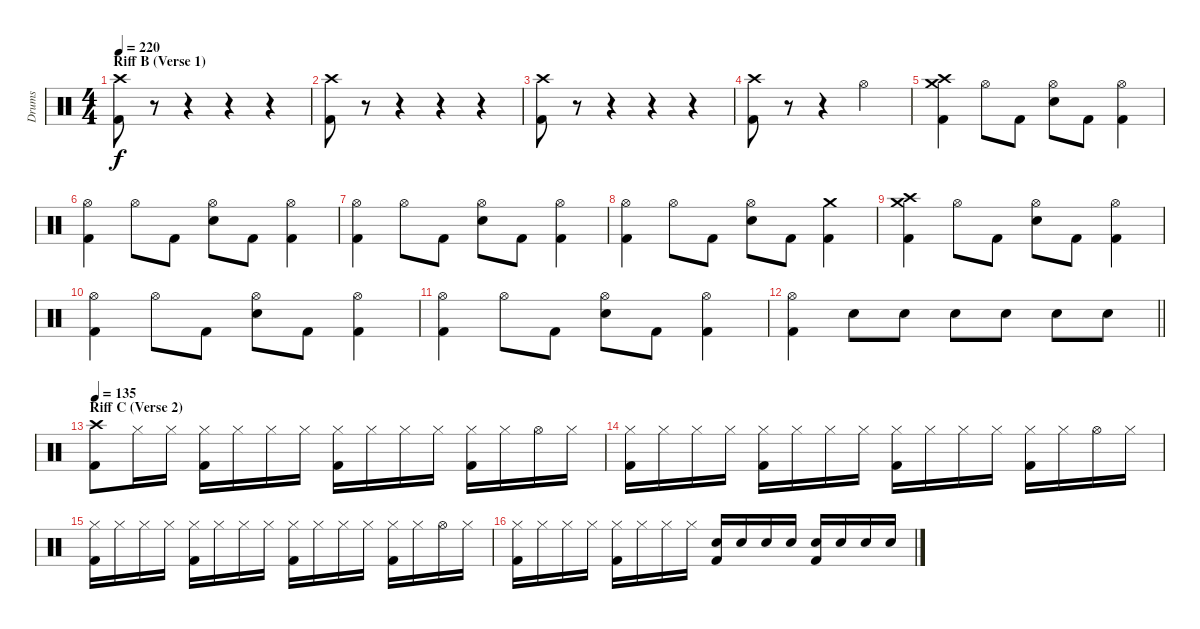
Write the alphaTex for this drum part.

\track ("Drums" "Drums") {instrument percussion}
\staff {score}
\articulation defaults
\ts (4 4)
\section ("" "Riff B (Verse 1)")
\tempo 220
\clef neutral
\ks c
("Crash high (hit)" "Kick (hit) 2").8{dy f} r.8 r.4 r.4 r.4 |
("Crash high (hit)" "Kick (hit) 2").8 r.8 r.4 r.4 r.4 |
("Crash high (hit)" "Kick (hit) 2").8 r.8 r.4 r.4 r.4 |
("Crash high (hit)" "Kick (hit) 2").8 r.8 r.4 "Hi-Hat (open)".2 |
("Crash high (hit)" "Crash medium (hit)" "Kick (hit) 2").4 "Hi-Hat (open)".8 "Kick (hit) 2".8 ("Hi-Hat (open)" "Snare (hit) 2").8 "Kick (hit) 2".8 ("Hi-Hat (open)" "Kick (hit) 2").4 |
("Hi-Hat (open)" "Kick (hit) 2").4 "Hi-Hat (open)".8 "Kick (hit) 2".8 ("Hi-Hat (open)" "Snare (hit) 2").8 "Kick (hit) 2".8 ("Hi-Hat (open)" "Kick (hit) 2").4 |
("Hi-Hat (open)" "Kick (hit) 2").4 "Hi-Hat (open)".8 "Kick (hit) 2".8 ("Hi-Hat (open)" "Snare (hit) 2").8 "Kick (hit) 2".8 ("Hi-Hat (open)" "Kick (hit) 2").4 |
("Hi-Hat (open)" "Kick (hit) 2").4 "Hi-Hat (open)".8 "Kick (hit) 2".8 ("Hi-Hat (open)" "Snare (hit) 2").8 "Kick (hit) 2".8 ("Crash medium (hit)" "Kick (hit) 2").4 |
("Crash high (hit)" "Crash medium (hit)" "Kick (hit) 2").4 "Hi-Hat (open)".8 "Kick (hit) 2".8 ("Hi-Hat (open)" "Snare (hit) 2").8 "Kick (hit) 2".8 ("Hi-Hat (open)" "Kick (hit) 2").4 |
("Hi-Hat (open)" "Kick (hit) 2").4 "Hi-Hat (open)".8 "Kick (hit) 2".8 ("Hi-Hat (open)" "Snare (hit) 2").8 "Kick (hit) 2".8 ("Hi-Hat (open)" "Kick (hit) 2").4 |
("Hi-Hat (open)" "Kick (hit) 2").4 "Hi-Hat (open)".8 "Kick (hit) 2".8 ("Hi-Hat (open)" "Snare (hit) 2").8 "Kick (hit) 2".8 ("Hi-Hat (open)" "Kick (hit) 2").4 |
\barLineRight lightlight
("Hi-Hat (open)" "Kick (hit) 2").4 "Snare (hit) 2".8 "Snare (hit) 2".8 "Snare (hit) 2".8 "Snare (hit) 2".8 "Snare (hit) 2".8 "Snare (hit) 2".8 |
\section ("" "Riff C (Verse 2)")
\tempo 135
("Crash high (hit)" "Kick (hit) 2").8 "Hi-Hat (closed)".16 "Hi-Hat (closed)".16 ("Hi-Hat (closed)" "Kick (hit) 2").16 "Hi-Hat (closed)".16 "Hi-Hat (closed)".16 "Hi-Hat (closed)".16 ("Hi-Hat (closed)" "Kick (hit) 2").16 "Hi-Hat (closed)".16 "Hi-Hat (closed)".16 "Hi-Hat (closed)".16 ("Hi-Hat (closed)" "Kick (hit) 2").16 "Hi-Hat (closed)".16 "Hi-Hat (open)".16 "Hi-Hat (closed)".16 |
("Hi-Hat (closed)" "Kick (hit) 2").16 "Hi-Hat (closed)".16 "Hi-Hat (closed)".16 "Hi-Hat (closed)".16 ("Hi-Hat (closed)" "Kick (hit) 2").16 "Hi-Hat (closed)".16 "Hi-Hat (closed)".16 "Hi-Hat (closed)".16 ("Hi-Hat (closed)" "Kick (hit) 2").16 "Hi-Hat (closed)".16 "Hi-Hat (closed)".16 "Hi-Hat (closed)".16 ("Hi-Hat (closed)" "Kick (hit) 2").16 "Hi-Hat (closed)".16 "Hi-Hat (open)".16 "Hi-Hat (closed)".16 |
("Hi-Hat (closed)" "Kick (hit) 2").16 "Hi-Hat (closed)".16 "Hi-Hat (closed)".16 "Hi-Hat (closed)".16 ("Hi-Hat (closed)" "Kick (hit) 2").16 "Hi-Hat (closed)".16 "Hi-Hat (closed)".16 "Hi-Hat (closed)".16 ("Hi-Hat (closed)" "Kick (hit) 2").16 "Hi-Hat (closed)".16 "Hi-Hat (closed)".16 "Hi-Hat (closed)".16 ("Hi-Hat (closed)" "Kick (hit) 2").16 "Hi-Hat (closed)".16 "Hi-Hat (open)".16 "Hi-Hat (closed)".16 |
("Hi-Hat (closed)" "Kick (hit) 2").16 "Hi-Hat (closed)".16 "Hi-Hat (closed)".16 "Hi-Hat (closed)".16 ("Hi-Hat (closed)" "Kick (hit) 2").16 "Hi-Hat (closed)".16 "Hi-Hat (closed)".16 "Hi-Hat (closed)".16 ("Snare (hit) 2" "Kick (hit) 2").16 "Snare (hit) 2".16 "Snare (hit) 2".16 "Snare (hit) 2".16 ("Snare (hit) 2" "Kick (hit) 2").16 "Snare (hit) 2".16 "Snare (hit) 2".16 "Snare (hit) 2".16
